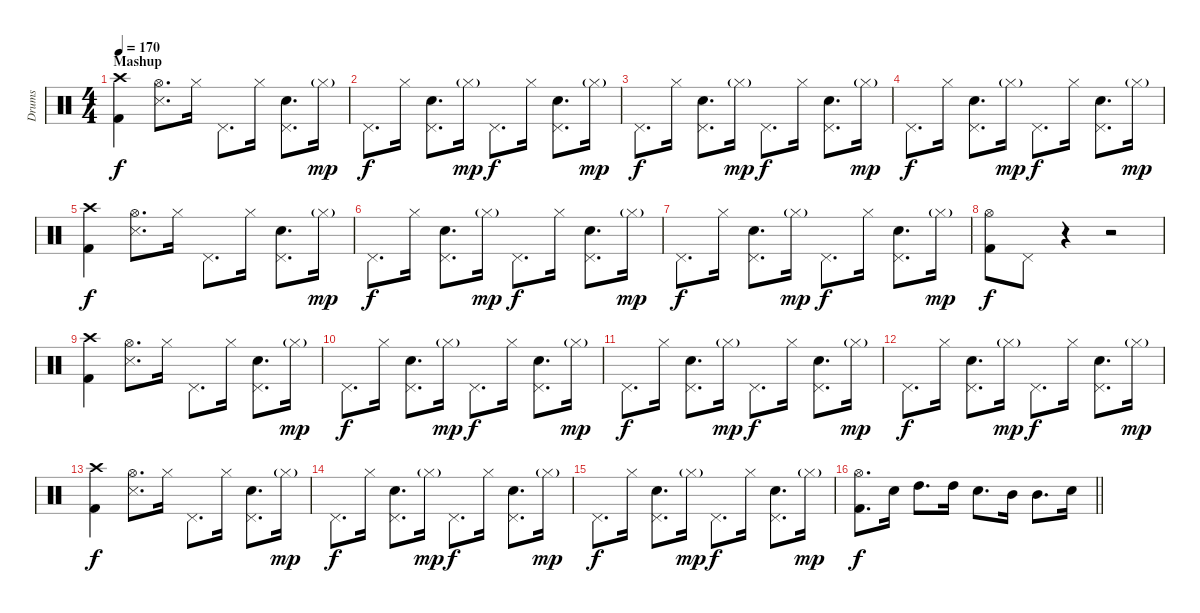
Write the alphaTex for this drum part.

\track ("Drums" "Drums") {instrument percussion}
\staff {score}
\articulation defaults
\ts (4 4)
\section ("" "Mashup")
\tempo 170
\clef neutral
\ks c
("Crash high (hit)" "Kick (hit) 2").4{dy f} ("Hi-Hat (open)" "Snare (side stick) 3").8{d} "Hi-Hat (closed)".16 "Pedal Hi-Hat (hit)".8{d} "Hi-Hat (closed)".16 ("Pedal Hi-Hat (hit)" "Snare (hit) 2").8{d} "Hi-Hat (closed)"{g}.16{dy mp} |
"Pedal Hi-Hat (hit)".8{d dy f} "Hi-Hat (closed)".16 ("Pedal Hi-Hat (hit)" "Snare (hit) 2").8{d} "Hi-Hat (closed)"{g}.16{dy mp} "Pedal Hi-Hat (hit)".8{d dy f} "Hi-Hat (closed)".16 ("Pedal Hi-Hat (hit)" "Snare (hit) 2").8{d} "Hi-Hat (closed)"{g}.16{dy mp} |
"Pedal Hi-Hat (hit)".8{d dy f} "Hi-Hat (closed)".16 ("Pedal Hi-Hat (hit)" "Snare (hit) 2").8{d} "Hi-Hat (closed)"{g}.16{dy mp} "Pedal Hi-Hat (hit)".8{d dy f} "Hi-Hat (closed)".16 ("Pedal Hi-Hat (hit)" "Snare (hit) 2").8{d} "Hi-Hat (closed)"{g}.16{dy mp} |
"Pedal Hi-Hat (hit)".8{d dy f} "Hi-Hat (closed)".16 ("Pedal Hi-Hat (hit)" "Snare (hit) 2").8{d} "Hi-Hat (closed)"{g}.16{dy mp} "Pedal Hi-Hat (hit)".8{d dy f} "Hi-Hat (closed)".16 ("Pedal Hi-Hat (hit)" "Snare (hit) 2").8{d} "Hi-Hat (closed)"{g}.16{dy mp} |
("Crash high (hit)" "Kick (hit) 2").4{dy f} ("Hi-Hat (open)" "Snare (side stick) 3").8{d} "Hi-Hat (closed)".16 "Pedal Hi-Hat (hit)".8{d} "Hi-Hat (closed)".16 ("Pedal Hi-Hat (hit)" "Snare (hit) 2").8{d} "Hi-Hat (closed)"{g}.16{dy mp} |
"Pedal Hi-Hat (hit)".8{d dy f} "Hi-Hat (closed)".16 ("Pedal Hi-Hat (hit)" "Snare (hit) 2").8{d} "Hi-Hat (closed)"{g}.16{dy mp} "Pedal Hi-Hat (hit)".8{d dy f} "Hi-Hat (closed)".16 ("Pedal Hi-Hat (hit)" "Snare (hit) 2").8{d} "Hi-Hat (closed)"{g}.16{dy mp} |
"Pedal Hi-Hat (hit)".8{d dy f} "Hi-Hat (closed)".16 ("Pedal Hi-Hat (hit)" "Snare (hit) 2").8{d} "Hi-Hat (closed)"{g}.16{dy mp} "Pedal Hi-Hat (hit)".8{d dy f} "Hi-Hat (closed)".16 ("Pedal Hi-Hat (hit)" "Snare (hit) 2").8{d} "Hi-Hat (closed)"{g}.16{dy mp} |
("Hi-Hat (open)" "Kick (hit) 2").8{dy f} "Pedal Hi-Hat (hit)".8 r.4 r.2 |
("Crash high (hit)" "Kick (hit) 2").4 ("Hi-Hat (open)" "Snare (side stick) 3").8{d} "Hi-Hat (closed)".16 "Pedal Hi-Hat (hit)".8{d} "Hi-Hat (closed)".16 ("Pedal Hi-Hat (hit)" "Snare (hit) 2").8{d} "Hi-Hat (closed)"{g}.16{dy mp} |
"Pedal Hi-Hat (hit)".8{d dy f} "Hi-Hat (closed)".16 ("Pedal Hi-Hat (hit)" "Snare (hit) 2").8{d} "Hi-Hat (closed)"{g}.16{dy mp} "Pedal Hi-Hat (hit)".8{d dy f} "Hi-Hat (closed)".16 ("Pedal Hi-Hat (hit)" "Snare (hit) 2").8{d} "Hi-Hat (closed)"{g}.16{dy mp} |
"Pedal Hi-Hat (hit)".8{d dy f} "Hi-Hat (closed)".16 ("Pedal Hi-Hat (hit)" "Snare (hit) 2").8{d} "Hi-Hat (closed)"{g}.16{dy mp} "Pedal Hi-Hat (hit)".8{d dy f} "Hi-Hat (closed)".16 ("Pedal Hi-Hat (hit)" "Snare (hit) 2").8{d} "Hi-Hat (closed)"{g}.16{dy mp} |
"Pedal Hi-Hat (hit)".8{d dy f} "Hi-Hat (closed)".16 ("Pedal Hi-Hat (hit)" "Snare (hit) 2").8{d} "Hi-Hat (closed)"{g}.16{dy mp} "Pedal Hi-Hat (hit)".8{d dy f} "Hi-Hat (closed)".16 ("Pedal Hi-Hat (hit)" "Snare (hit) 2").8{d} "Hi-Hat (closed)"{g}.16{dy mp} |
("Crash high (hit)" "Kick (hit) 2").4{dy f} ("Hi-Hat (open)" "Snare (side stick) 3").8{d} "Hi-Hat (closed)".16 "Pedal Hi-Hat (hit)".8{d} "Hi-Hat (closed)".16 ("Pedal Hi-Hat (hit)" "Snare (hit) 2").8{d} "Hi-Hat (closed)"{g}.16{dy mp} |
"Pedal Hi-Hat (hit)".8{d dy f} "Hi-Hat (closed)".16 ("Pedal Hi-Hat (hit)" "Snare (hit) 2").8{d} "Hi-Hat (closed)"{g}.16{dy mp} "Pedal Hi-Hat (hit)".8{d dy f} "Hi-Hat (closed)".16 ("Pedal Hi-Hat (hit)" "Snare (hit) 2").8{d} "Hi-Hat (closed)"{g}.16{dy mp} |
"Pedal Hi-Hat (hit)".8{d dy f} "Hi-Hat (closed)".16 ("Pedal Hi-Hat (hit)" "Snare (hit) 2").8{d} "Hi-Hat (closed)"{g}.16{dy mp} "Pedal Hi-Hat (hit)".8{d dy f} "Hi-Hat (closed)".16 ("Pedal Hi-Hat (hit)" "Snare (hit) 2").8{d} "Hi-Hat (closed)"{g}.16{dy mp} |
\barLineRight lightlight
("Hi-Hat (open)" "Kick (hit) 2").8{d dy f} "Snare (hit) 2".16 "High Tom (hit)".8{d} "High Tom (hit)".16 "Snare (hit) 2".8{d} "Mid Tom (hit)".16 "Mid Tom (hit)".8{d} "Snare (hit) 2".16
